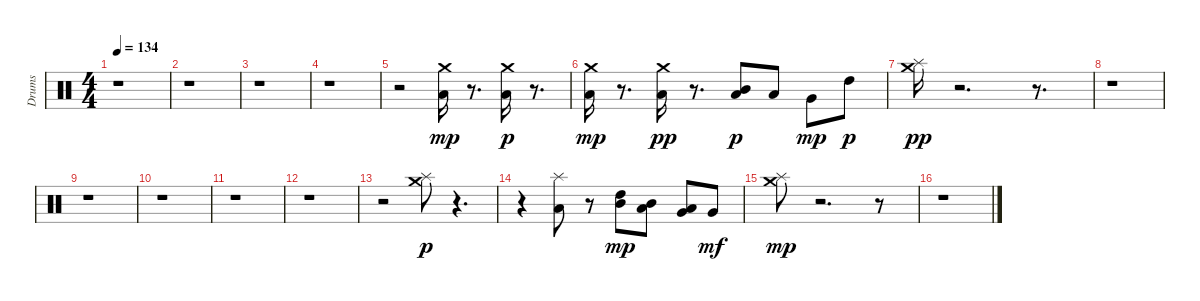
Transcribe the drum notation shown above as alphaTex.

\track ("Drums" "Drums") {instrument percussion}
\staff {score}
\articulation defaults
\ts (4 4)
\tempo 134
\clef neutral
\ks c
r.1{dy mp} |
r.1 |
r.1 |
r.1 |
r.2 ("Crash medium (hit)" "Low Floor Tom (hit)").16 r.8{d} ("Crash medium (hit)" "Low Floor Tom (hit)").16{dy p} r.8{d} |
("Crash medium (hit)" "Low Floor Tom (hit)").16{dy mp} r.8{d} ("Crash medium (hit)" "Low Floor Tom (hit)").16{dy pp} r.8{d} ("Low Floor Tom (hit)" "Mid Tom (hit)").8{dy p} "Low Tom (hit)".8 "Very Low Tom (hit)".8{dy mp} "High Tom (hit)".8{dy p} |
("Crash medium (hit)" "Splash (hit)").16{dy pp} r.2{d} r.8{d} |
r.1 |
r.1 |
r.1 |
r.1 |
r.1 |
r.2 ("Crash medium (hit)" "Splash (hit)").8{dy p} r.4{d} |
r.4 ("Splash (hit)" "Low Floor Tom (hit)").8 r.8 ("High Tom (hit)" "Mid Tom (hit)").8{dy mp} ("Mid Tom (hit)" "Low Tom (hit)").8 ("Low Tom (hit)" "Very Low Tom (hit)").8 "Very Low Tom (hit)".8{dy mf} |
("Crash medium (hit)" "Splash (hit)").8{dy mp} r.2{d} r.8 |
r.1
